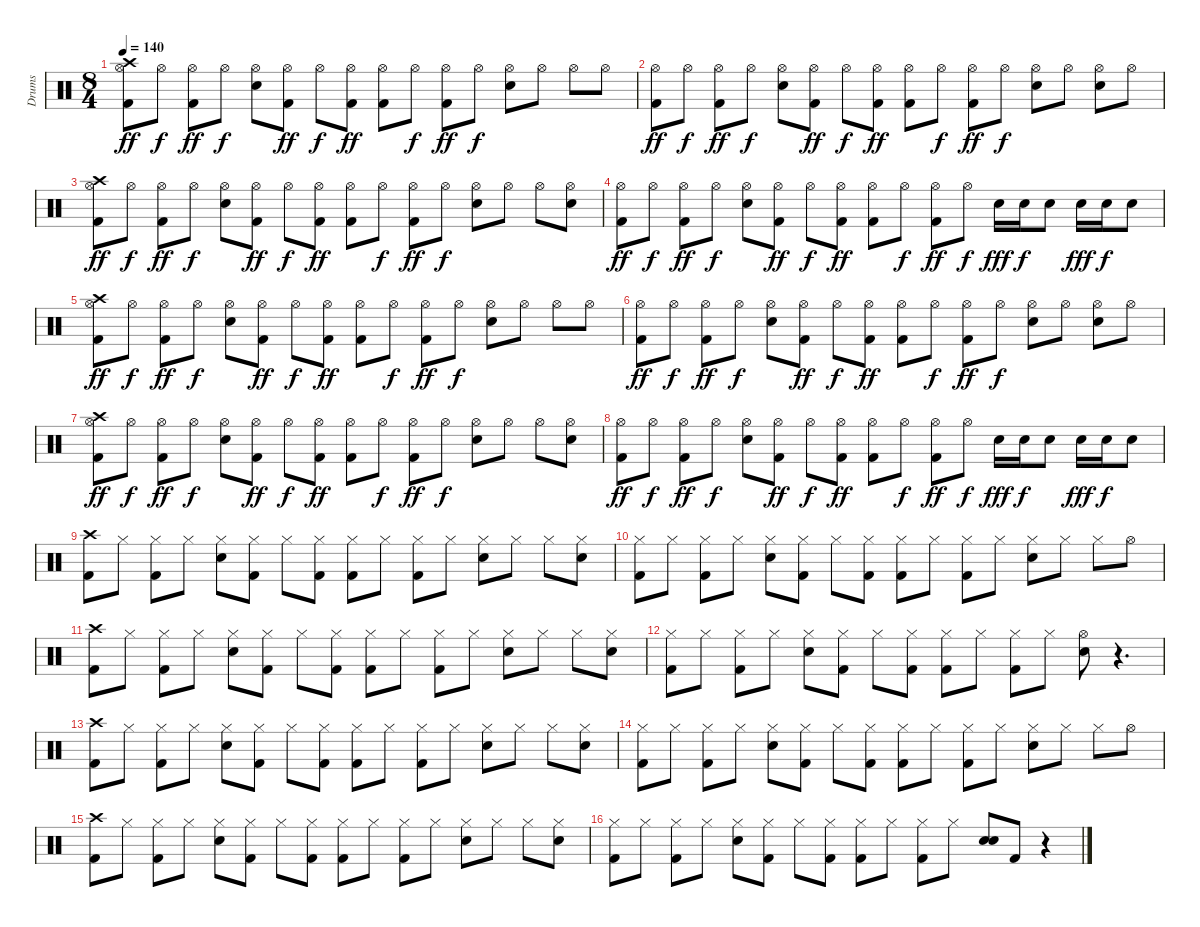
\track ("Drums" "Drums") {instrument percussion}
\staff {score}
\articulation defaults
\ts (8 4)
\tempo 140
\clef neutral
\ks c
("Crash high (hit)" "Hi-Hat (open)" "Kick (hit) 2").8{dy ff} "Hi-Hat (open)".8{dy f} ("Hi-Hat (open)" "Kick (hit) 2").8{dy ff} "Hi-Hat (open)".8{dy f} ("Hi-Hat (open)" "Snare (hit) 2").8 ("Hi-Hat (open)" "Kick (hit) 2").8{dy ff} "Hi-Hat (open)".8{dy f} ("Hi-Hat (open)" "Kick (hit) 2").8{dy ff} ("Hi-Hat (open)" "Kick (hit) 2").8 "Hi-Hat (open)".8{dy f} ("Hi-Hat (open)" "Kick (hit) 2").8{dy ff} "Hi-Hat (open)".8{dy f} ("Hi-Hat (open)" "Snare (hit) 2").8 "Hi-Hat (open)".8 "Hi-Hat (open)".8 "Hi-Hat (open)".8 |
("Hi-Hat (open)" "Kick (hit) 2").8{dy ff} "Hi-Hat (open)".8{dy f} ("Hi-Hat (open)" "Kick (hit) 2").8{dy ff} "Hi-Hat (open)".8{dy f} ("Hi-Hat (open)" "Snare (hit) 2").8 ("Hi-Hat (open)" "Kick (hit) 2").8{dy ff} "Hi-Hat (open)".8{dy f} ("Hi-Hat (open)" "Kick (hit) 2").8{dy ff} ("Hi-Hat (open)" "Kick (hit) 2").8 "Hi-Hat (open)".8{dy f} ("Hi-Hat (open)" "Kick (hit) 2").8{dy ff} "Hi-Hat (open)".8{dy f} ("Hi-Hat (open)" "Snare (hit) 2").8 "Hi-Hat (open)".8 ("Hi-Hat (open)" "Snare (hit) 2").8 "Hi-Hat (open)".8 |
("Crash high (hit)" "Hi-Hat (open)" "Kick (hit) 2").8{dy ff} "Hi-Hat (open)".8{dy f} ("Hi-Hat (open)" "Kick (hit) 2").8{dy ff} "Hi-Hat (open)".8{dy f} ("Hi-Hat (open)" "Snare (hit) 2").8 ("Hi-Hat (open)" "Kick (hit) 2").8{dy ff} "Hi-Hat (open)".8{dy f} ("Hi-Hat (open)" "Kick (hit) 2").8{dy ff} ("Hi-Hat (open)" "Kick (hit) 2").8 "Hi-Hat (open)".8{dy f} ("Hi-Hat (open)" "Kick (hit) 2").8{dy ff} "Hi-Hat (open)".8{dy f} ("Hi-Hat (open)" "Snare (hit) 2").8 "Hi-Hat (open)".8 "Hi-Hat (open)".8 ("Hi-Hat (open)" "Snare (hit) 2").8 |
("Hi-Hat (open)" "Kick (hit) 2").8{dy ff} "Hi-Hat (open)".8{dy f} ("Hi-Hat (open)" "Kick (hit) 2").8{dy ff} "Hi-Hat (open)".8{dy f} ("Hi-Hat (open)" "Snare (hit) 2").8 ("Hi-Hat (open)" "Kick (hit) 2").8{dy ff} "Hi-Hat (open)".8{dy f} ("Hi-Hat (open)" "Kick (hit) 2").8{dy ff} ("Hi-Hat (open)" "Kick (hit) 2").8 "Hi-Hat (open)".8{dy f} ("Hi-Hat (open)" "Kick (hit) 2").8{dy ff} "Hi-Hat (open)".8{dy f} "Snare (hit) 2".16{dy fff} "Snare (hit) 2".16{dy f} "Snare (hit) 2".8 "Snare (hit) 2".16{dy fff} "Snare (hit) 2".16{dy f} "Snare (hit) 2".8 |
("Crash high (hit)" "Hi-Hat (open)" "Kick (hit) 2").8{dy ff} "Hi-Hat (open)".8{dy f} ("Hi-Hat (open)" "Kick (hit) 2").8{dy ff} "Hi-Hat (open)".8{dy f} ("Hi-Hat (open)" "Snare (hit) 2").8 ("Hi-Hat (open)" "Kick (hit) 2").8{dy ff} "Hi-Hat (open)".8{dy f} ("Hi-Hat (open)" "Kick (hit) 2").8{dy ff} ("Hi-Hat (open)" "Kick (hit) 2").8 "Hi-Hat (open)".8{dy f} ("Hi-Hat (open)" "Kick (hit) 2").8{dy ff} "Hi-Hat (open)".8{dy f} ("Hi-Hat (open)" "Snare (hit) 2").8 "Hi-Hat (open)".8 "Hi-Hat (open)".8 "Hi-Hat (open)".8 |
("Hi-Hat (open)" "Kick (hit) 2").8{dy ff} "Hi-Hat (open)".8{dy f} ("Hi-Hat (open)" "Kick (hit) 2").8{dy ff} "Hi-Hat (open)".8{dy f} ("Hi-Hat (open)" "Snare (hit) 2").8 ("Hi-Hat (open)" "Kick (hit) 2").8{dy ff} "Hi-Hat (open)".8{dy f} ("Hi-Hat (open)" "Kick (hit) 2").8{dy ff} ("Hi-Hat (open)" "Kick (hit) 2").8 "Hi-Hat (open)".8{dy f} ("Hi-Hat (open)" "Kick (hit) 2").8{dy ff} "Hi-Hat (open)".8{dy f} ("Hi-Hat (open)" "Snare (hit) 2").8 "Hi-Hat (open)".8 ("Hi-Hat (open)" "Snare (hit) 2").8 "Hi-Hat (open)".8 |
("Crash high (hit)" "Hi-Hat (open)" "Kick (hit) 2").8{dy ff} "Hi-Hat (open)".8{dy f} ("Hi-Hat (open)" "Kick (hit) 2").8{dy ff} "Hi-Hat (open)".8{dy f} ("Hi-Hat (open)" "Snare (hit) 2").8 ("Hi-Hat (open)" "Kick (hit) 2").8{dy ff} "Hi-Hat (open)".8{dy f} ("Hi-Hat (open)" "Kick (hit) 2").8{dy ff} ("Hi-Hat (open)" "Kick (hit) 2").8 "Hi-Hat (open)".8{dy f} ("Hi-Hat (open)" "Kick (hit) 2").8{dy ff} "Hi-Hat (open)".8{dy f} ("Hi-Hat (open)" "Snare (hit) 2").8 "Hi-Hat (open)".8 "Hi-Hat (open)".8 ("Hi-Hat (open)" "Snare (hit) 2").8 |
("Hi-Hat (open)" "Kick (hit) 2").8{dy ff} "Hi-Hat (open)".8{dy f} ("Hi-Hat (open)" "Kick (hit) 2").8{dy ff} "Hi-Hat (open)".8{dy f} ("Hi-Hat (open)" "Snare (hit) 2").8 ("Hi-Hat (open)" "Kick (hit) 2").8{dy ff} "Hi-Hat (open)".8{dy f} ("Hi-Hat (open)" "Kick (hit) 2").8{dy ff} ("Hi-Hat (open)" "Kick (hit) 2").8 "Hi-Hat (open)".8{dy f} ("Hi-Hat (open)" "Kick (hit) 2").8{dy ff} "Hi-Hat (open)".8{dy f} "Snare (hit) 2".16{dy fff} "Snare (hit) 2".16{dy f} "Snare (hit) 2".8 "Snare (hit) 2".16{dy fff} "Snare (hit) 2".16{dy f} "Snare (hit) 2".8 |
("Crash high (hit)" "Kick (hit) 2").8 "Hi-Hat (closed)".8 ("Hi-Hat (closed)" "Kick (hit) 2").8 "Hi-Hat (closed)".8 ("Hi-Hat (closed)" "Snare (hit) 2").8 ("Hi-Hat (closed)" "Kick (hit) 2").8 "Hi-Hat (closed)".8 ("Hi-Hat (closed)" "Kick (hit) 2").8 ("Hi-Hat (closed)" "Kick (hit) 2").8 "Hi-Hat (closed)".8 ("Hi-Hat (closed)" "Kick (hit) 2").8 "Hi-Hat (closed)".8 ("Hi-Hat (closed)" "Snare (hit) 2").8 "Hi-Hat (closed)".8 "Hi-Hat (closed)".8 ("Hi-Hat (closed)" "Snare (hit) 2").8 |
("Hi-Hat (closed)" "Kick (hit) 2").8 "Hi-Hat (closed)".8 ("Hi-Hat (closed)" "Kick (hit) 2").8 "Hi-Hat (closed)".8 ("Hi-Hat (closed)" "Snare (hit) 2").8 ("Hi-Hat (closed)" "Kick (hit) 2").8 "Hi-Hat (closed)".8 ("Hi-Hat (closed)" "Kick (hit) 2").8 ("Hi-Hat (closed)" "Kick (hit) 2").8 "Hi-Hat (closed)".8 ("Hi-Hat (closed)" "Kick (hit) 2").8 "Hi-Hat (closed)".8 ("Hi-Hat (closed)" "Snare (hit) 2").8 "Hi-Hat (closed)".8 "Hi-Hat (closed)".8 "Hi-Hat (open)".8 |
("Crash high (hit)" "Kick (hit) 2").8 "Hi-Hat (closed)".8 ("Hi-Hat (closed)" "Kick (hit) 2").8 "Hi-Hat (closed)".8 ("Hi-Hat (closed)" "Snare (hit) 2").8 ("Hi-Hat (closed)" "Kick (hit) 2").8 "Hi-Hat (closed)".8 ("Hi-Hat (closed)" "Kick (hit) 2").8 ("Hi-Hat (closed)" "Kick (hit) 2").8 "Hi-Hat (closed)".8 ("Hi-Hat (closed)" "Kick (hit) 2").8 "Hi-Hat (closed)".8 ("Hi-Hat (closed)" "Snare (hit) 2").8 "Hi-Hat (closed)".8 "Hi-Hat (closed)".8 ("Hi-Hat (closed)" "Snare (hit) 2").8 |
("Hi-Hat (closed)" "Kick (hit) 2").8 "Hi-Hat (closed)".8 ("Hi-Hat (closed)" "Kick (hit) 2").8 "Hi-Hat (closed)".8 ("Hi-Hat (closed)" "Snare (hit) 2").8 ("Hi-Hat (closed)" "Kick (hit) 2").8 "Hi-Hat (closed)".8 ("Hi-Hat (closed)" "Kick (hit) 2").8 ("Hi-Hat (closed)" "Kick (hit) 2").8 "Hi-Hat (closed)".8 ("Hi-Hat (closed)" "Kick (hit) 2").8 "Hi-Hat (closed)".8 ("Hi-Hat (open)" "Snare (hit) 2").8 r.4{d} |
("Crash high (hit)" "Kick (hit) 2").8 "Hi-Hat (closed)".8 ("Hi-Hat (closed)" "Kick (hit) 2").8 "Hi-Hat (closed)".8 ("Hi-Hat (closed)" "Snare (hit) 2").8 ("Hi-Hat (closed)" "Kick (hit) 2").8 "Hi-Hat (closed)".8 ("Hi-Hat (closed)" "Kick (hit) 2").8 ("Hi-Hat (closed)" "Kick (hit) 2").8 "Hi-Hat (closed)".8 ("Hi-Hat (closed)" "Kick (hit) 2").8 "Hi-Hat (closed)".8 ("Hi-Hat (closed)" "Snare (hit) 2").8 "Hi-Hat (closed)".8 "Hi-Hat (closed)".8 ("Hi-Hat (closed)" "Snare (hit) 2").8 |
("Hi-Hat (closed)" "Kick (hit) 2").8 "Hi-Hat (closed)".8 ("Hi-Hat (closed)" "Kick (hit) 2").8 "Hi-Hat (closed)".8 ("Hi-Hat (closed)" "Snare (hit) 2").8 ("Hi-Hat (closed)" "Kick (hit) 2").8 "Hi-Hat (closed)".8 ("Hi-Hat (closed)" "Kick (hit) 2").8 ("Hi-Hat (closed)" "Kick (hit) 2").8 "Hi-Hat (closed)".8 ("Hi-Hat (closed)" "Kick (hit) 2").8 "Hi-Hat (closed)".8 ("Hi-Hat (closed)" "Snare (hit) 2").8 "Hi-Hat (closed)".8 "Hi-Hat (closed)".8 "Hi-Hat (open)".8 |
("Crash high (hit)" "Kick (hit) 2").8 "Hi-Hat (closed)".8 ("Hi-Hat (closed)" "Kick (hit) 2").8 "Hi-Hat (closed)".8 ("Hi-Hat (closed)" "Snare (hit) 2").8 ("Hi-Hat (closed)" "Kick (hit) 2").8 "Hi-Hat (closed)".8 ("Hi-Hat (closed)" "Kick (hit) 2").8 ("Hi-Hat (closed)" "Kick (hit) 2").8 "Hi-Hat (closed)".8 ("Hi-Hat (closed)" "Kick (hit) 2").8 "Hi-Hat (closed)".8 ("Hi-Hat (closed)" "Snare (hit) 2").8 "Hi-Hat (closed)".8 "Hi-Hat (closed)".8 ("Hi-Hat (closed)" "Snare (hit) 2").8 |
("Hi-Hat (closed)" "Kick (hit) 2").8 "Hi-Hat (closed)".8 ("Hi-Hat (closed)" "Kick (hit) 2").8 "Hi-Hat (closed)".8 ("Hi-Hat (closed)" "Snare (hit) 2").8 ("Hi-Hat (closed)" "Kick (hit) 2").8 "Hi-Hat (closed)".8 ("Hi-Hat (closed)" "Kick (hit) 2").8 ("Hi-Hat (closed)" "Kick (hit) 2").8 "Hi-Hat (closed)".8 ("Hi-Hat (closed)" "Kick (hit) 2").8 "Hi-Hat (closed)".8 ("Snare (hit) 2" "Snare (hit) 2").8{bu 240} "Kick (hit) 2".8 r.4
